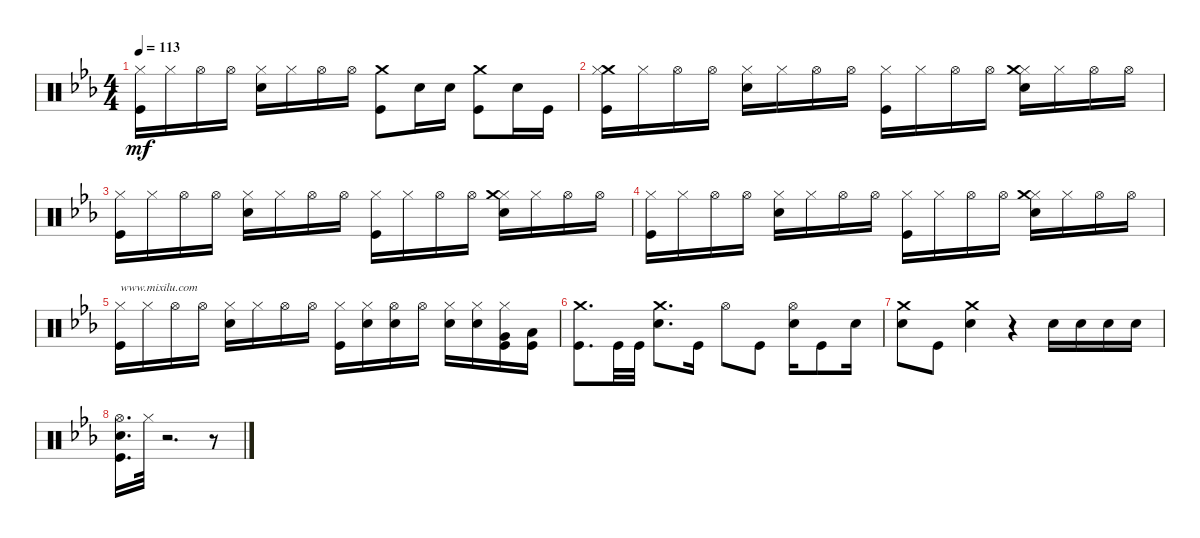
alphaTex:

\track "" {instrument percussion}
\staff {score}
\articulation defaults
\ts (4 4)
\tempo 113
\clef neutral
\ks eb
("Hi-Hat (closed)" "Kick (hit)").16{dy mf} "Hi-Hat (closed)".16 "Hi-Hat (open)".16 "Hi-Hat (open)".16 ("Hi-Hat (closed)" "Snare (hit) 2").16 "Hi-Hat (closed)".16 "Hi-Hat (open)".16 "Hi-Hat (open)".16 ("Kick (hit)" "Crash medium (hit)").8 "Snare (hit) 2".16 "Snare (hit) 2".16 ("Kick (hit)" "Crash medium (hit)").8 "Snare (hit) 2".16 "Kick (hit)".16 |
("Crash medium (hit)" "Hi-Hat (closed)" "Kick (hit)").16 "Hi-Hat (closed)".16 "Hi-Hat (open)".16 "Hi-Hat (open)".16 ("Hi-Hat (closed)" "Snare (hit) 2").16 "Hi-Hat (closed)".16 "Hi-Hat (open)".16 "Hi-Hat (open)".16 ("Hi-Hat (closed)" "Kick (hit)").16 "Hi-Hat (closed)".16 "Hi-Hat (open)".16 "Hi-Hat (open)".16 ("Hi-Hat (closed)" "Snare (hit) 2" "Crash medium (hit)").16 "Hi-Hat (closed)".16 "Hi-Hat (open)".16 "Hi-Hat (open)".16 |
("Hi-Hat (closed)" "Kick (hit)").16 "Hi-Hat (closed)".16 "Hi-Hat (open)".16 "Hi-Hat (open)".16 ("Hi-Hat (closed)" "Snare (hit) 2").16 "Hi-Hat (closed)".16 "Hi-Hat (open)".16 "Hi-Hat (open)".16 ("Hi-Hat (closed)" "Kick (hit)").16 "Hi-Hat (closed)".16 "Hi-Hat (open)".16 "Hi-Hat (open)".16 ("Hi-Hat (closed)" "Snare (hit) 2" "Crash medium (hit)").16 "Hi-Hat (closed)".16 "Hi-Hat (open)".16 "Hi-Hat (open)".16 |
("Hi-Hat (closed)" "Kick (hit)").16 "Hi-Hat (closed)".16 "Hi-Hat (open)".16 "Hi-Hat (open)".16 ("Hi-Hat (closed)" "Snare (hit) 2").16 "Hi-Hat (closed)".16 "Hi-Hat (open)".16 "Hi-Hat (open)".16 ("Hi-Hat (closed)" "Kick (hit)").16 "Hi-Hat (closed)".16 "Hi-Hat (open)".16 "Hi-Hat (open)".16 ("Hi-Hat (closed)" "Snare (hit) 2" "Crash medium (hit)").16 "Hi-Hat (closed)".16 "Hi-Hat (open)".16 "Hi-Hat (open)".16 |
("Hi-Hat (closed)" "Kick (hit)").16{txt "www.mixilu.com"} "Hi-Hat (closed)".16 "Hi-Hat (open)".16 "Hi-Hat (open)".16 ("Hi-Hat (closed)" "Snare (hit) 2").16 "Hi-Hat (closed)".16 "Hi-Hat (open)".16 "Hi-Hat (open)".16 ("Hi-Hat (closed)" "Kick (hit)").16 ("Hi-Hat (closed)" "Snare (hit) 2").16 ("Hi-Hat (open)" "Snare (hit) 2").16 "Hi-Hat (open)".16 ("Hi-Hat (closed)" "Snare (hit) 2").16 ("Hi-Hat (closed)" "Snare (hit) 2").16 ("Hi-Hat (closed)" "Very Low Tom (hit)" "Kick (hit)").16 ("Low Floor Tom (hit)" "Kick (hit)").16 |
("Kick (hit)" "Crash medium (hit)").8{d} "Kick (hit)".32 "Kick (hit)".32 ("Snare (hit) 2" "Crash medium (hit)").8{d} "Kick (hit)".16 "Hi-Hat (open)".8 "Kick (hit)".8 ("Hi-Hat (open)" "Snare (hit) 2").16 "Kick (hit)".8 "Snare (hit) 2".16 |
("Snare (hit) 2" "Crash medium (hit)").8 "Kick (hit)".8 ("Snare (hit) 2" "Crash medium (hit)").4 r.4 "Snare (hit) 2".16 "Snare (hit) 2".16 "Snare (hit) 2".16 "Snare (hit) 2".16 |
("Snare (hit) 2" "Hi-Hat (open)" "Kick (hit)").16{d} "Hi-Hat (closed)".32 r.2{d} r.8
